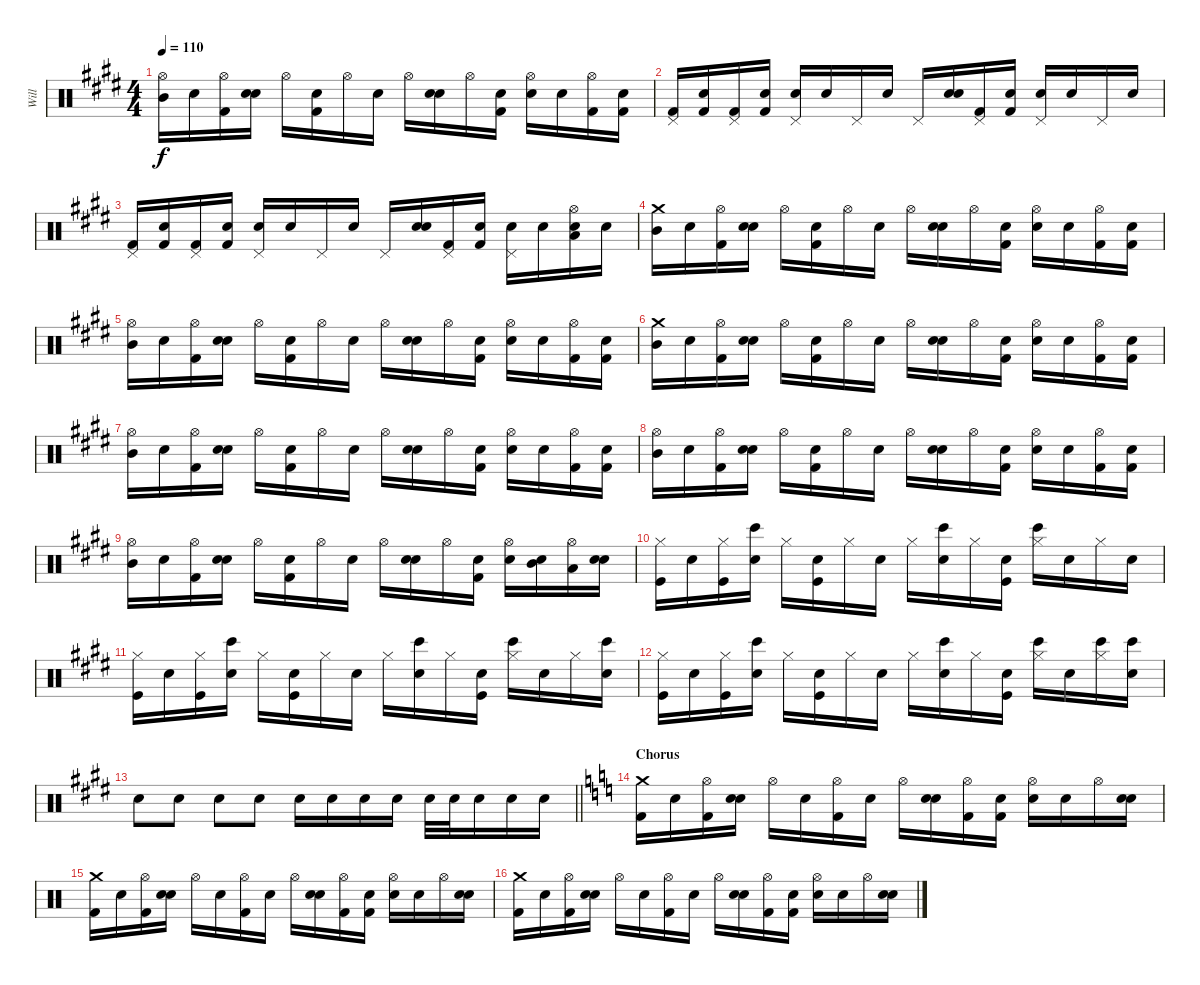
\track ("Will" "Will") {instrument percussion}
\staff {score}
\articulation defaults
\ts (4 4)
\tempo 110
\clef neutral
\ks e
("Hi-Hat (open)" "Mid Tom (hit)").16{dy f} "Snare (hit)".16 ("Hi-Hat (open)" "Kick (hit) 2").16 ("Snare (hit)" "Electric Snare (hit)").16 "Hi-Hat (open)".16 ("Snare (hit)" "Kick (hit) 2").16 "Hi-Hat (open)".16 "Snare (hit)".16 "Hi-Hat (open)".16 ("Snare (hit)" "Electric Snare (hit)").16 "Hi-Hat (open)".16 ("Snare (hit)" "Kick (hit) 2").16 ("Hi-Hat (open)" "Electric Snare (hit)").16 "Snare (hit)".16 ("Hi-Hat (open)" "Kick (hit) 2").16 ("Snare (hit)" "Kick (hit) 2").16 |
("Pedal Hi-Hat (hit)" "Kick (hit) 2").16{volume 10} ("Snare (hit)" "Kick (hit) 2").16 ("Pedal Hi-Hat (hit)" "Kick (hit) 2").16 ("Snare (hit)" "Kick (hit) 2").16 ("Pedal Hi-Hat (hit)" "Electric Snare (hit)").16 "Snare (hit)".16 "Pedal Hi-Hat (hit)".16 "Snare (hit)".16 "Pedal Hi-Hat (hit)".16 ("Snare (hit)" "Electric Snare (hit)").16 ("Pedal Hi-Hat (hit)" "Kick (hit) 2").16 ("Snare (hit)" "Kick (hit) 2").16 ("Pedal Hi-Hat (hit)" "Electric Snare (hit)").16 "Snare (hit)".16 "Pedal Hi-Hat (hit)".16 "Snare (hit)".16 |
("Pedal Hi-Hat (hit)" "Kick (hit) 2").16 ("Snare (hit)" "Kick (hit) 2").16 ("Pedal Hi-Hat (hit)" "Kick (hit) 2").16 ("Snare (hit)" "Kick (hit) 2").16 ("Pedal Hi-Hat (hit)" "Electric Snare (hit)").16 "Snare (hit)".16 "Pedal Hi-Hat (hit)".16 "Snare (hit)".16 "Pedal Hi-Hat (hit)".16 ("Snare (hit)" "Electric Snare (hit)").16 ("Pedal Hi-Hat (hit)" "Kick (hit) 2").16 ("Snare (hit)" "Kick (hit) 2").16 ("Pedal Hi-Hat (hit)" "Electric Snare (hit)").16 "Snare (hit)".16 ("Hi-Hat (open)" "Electric Snare (hit)" "Low Tom (hit)").16 "Snare (hit)".16 |
("Crash medium (hit)" "Mid Tom (hit)").16{volume 13} "Snare (hit)".16 ("Hi-Hat (open)" "Kick (hit) 2").16 ("Snare (hit)" "Electric Snare (hit)").16 "Hi-Hat (open)".16 ("Snare (hit)" "Kick (hit) 2").16 "Hi-Hat (open)".16 "Snare (hit)".16 "Hi-Hat (open)".16 ("Snare (hit)" "Electric Snare (hit)").16 "Hi-Hat (open)".16 ("Snare (hit)" "Kick (hit) 2").16 ("Hi-Hat (open)" "Electric Snare (hit)").16 "Snare (hit)".16 ("Hi-Hat (open)" "Kick (hit) 2").16 ("Snare (hit)" "Kick (hit) 2").16 |
("Hi-Hat (open)" "Mid Tom (hit)").16 "Snare (hit)".16 ("Hi-Hat (open)" "Kick (hit) 2").16 ("Snare (hit)" "Electric Snare (hit)").16 "Hi-Hat (open)".16 ("Snare (hit)" "Kick (hit) 2").16 "Hi-Hat (open)".16 "Snare (hit)".16 "Hi-Hat (open)".16 ("Snare (hit)" "Electric Snare (hit)").16 "Hi-Hat (open)".16 ("Snare (hit)" "Kick (hit) 2").16 ("Hi-Hat (open)" "Electric Snare (hit)").16 "Snare (hit)".16 ("Hi-Hat (open)" "Kick (hit) 2").16 ("Snare (hit)" "Kick (hit) 2").16 |
("Crash medium (hit)" "Mid Tom (hit)").16{volume 13} "Snare (hit)".16 ("Hi-Hat (open)" "Kick (hit) 2").16 ("Snare (hit)" "Electric Snare (hit)").16 "Hi-Hat (open)".16 ("Snare (hit)" "Kick (hit) 2").16 "Hi-Hat (open)".16 "Snare (hit)".16 "Hi-Hat (open)".16 ("Snare (hit)" "Electric Snare (hit)").16 "Hi-Hat (open)".16 ("Snare (hit)" "Kick (hit) 2").16 ("Hi-Hat (open)" "Electric Snare (hit)").16 "Snare (hit)".16 ("Hi-Hat (open)" "Kick (hit) 2").16 ("Snare (hit)" "Kick (hit) 2").16 |
("Hi-Hat (open)" "Mid Tom (hit)").16 "Snare (hit)".16 ("Hi-Hat (open)" "Kick (hit) 2").16 ("Snare (hit)" "Electric Snare (hit)").16 "Hi-Hat (open)".16 ("Snare (hit)" "Kick (hit) 2").16 "Hi-Hat (open)".16 "Snare (hit)".16 "Hi-Hat (open)".16 ("Snare (hit)" "Electric Snare (hit)").16 "Hi-Hat (open)".16 ("Snare (hit)" "Kick (hit) 2").16 ("Hi-Hat (open)" "Electric Snare (hit)").16 "Snare (hit)".16 ("Hi-Hat (open)" "Kick (hit) 2").16 ("Snare (hit)" "Kick (hit) 2").16 |
("Hi-Hat (open)" "Mid Tom (hit)").16 "Snare (hit)".16 ("Hi-Hat (open)" "Kick (hit) 2").16 ("Snare (hit)" "Electric Snare (hit)").16 "Hi-Hat (open)".16 ("Snare (hit)" "Kick (hit) 2").16 "Hi-Hat (open)".16 "Snare (hit)".16 "Hi-Hat (open)".16 ("Snare (hit)" "Electric Snare (hit)").16 "Hi-Hat (open)".16 ("Snare (hit)" "Kick (hit) 2").16 ("Hi-Hat (open)" "Electric Snare (hit)").16 "Snare (hit)".16 ("Hi-Hat (open)" "Kick (hit) 2").16 ("Snare (hit)" "Kick (hit) 2").16 |
("Hi-Hat (open)" "Mid Tom (hit)").16 "Snare (hit)".16 ("Hi-Hat (open)" "Kick (hit) 2").16 ("Snare (hit)" "Electric Snare (hit)").16 "Hi-Hat (open)".16 ("Snare (hit)" "Kick (hit) 2").16 "Hi-Hat (open)".16 "Snare (hit)".16 "Hi-Hat (open)".16 ("Snare (hit)" "Electric Snare (hit)").16 "Hi-Hat (open)".16 ("Snare (hit)" "Kick (hit) 2").16 ("Hi-Hat (open)" "Electric Snare (hit)").16 ("Snare (hit)" "Mid Tom (hit)").16 ("Hi-Hat (open)" "Low Tom (hit)").16 ("Snare (hit)" "Electric Snare (hit)").16 |
("Hi-Hat (closed)" "Kick (hit)").16 "Snare (hit)".16 ("Hi-Hat (closed)" "Kick (hit)").16 ("Snare (hit)" "Bongo High (hit)").16 "Hi-Hat (closed)".16 ("Snare (hit)" "Kick (hit)").16 "Hi-Hat (closed)".16 "Snare (hit)".16 "Hi-Hat (closed)".16 ("Snare (hit)" "Bongo High (hit)").16 "Hi-Hat (closed)".16 ("Snare (hit)" "Kick (hit)").16 ("Hi-Hat (closed)" "Bongo High (hit)").16 "Snare (hit)".16 "Hi-Hat (closed)".16 "Snare (hit)".16 |
("Hi-Hat (closed)" "Kick (hit)").16 "Snare (hit)".16 ("Hi-Hat (closed)" "Kick (hit)").16 ("Snare (hit)" "Bongo High (hit)").16 "Hi-Hat (closed)".16 ("Snare (hit)" "Kick (hit)").16 "Hi-Hat (closed)".16 "Snare (hit)".16 "Hi-Hat (closed)".16 ("Snare (hit)" "Bongo High (hit)").16 "Hi-Hat (closed)".16 ("Snare (hit)" "Kick (hit)").16 ("Hi-Hat (closed)" "Bongo High (hit)").16 "Snare (hit)".16 "Hi-Hat (closed)".16 ("Snare (hit)" "Bongo High (hit)").16 |
("Hi-Hat (closed)" "Kick (hit)").16 "Snare (hit)".16 ("Hi-Hat (closed)" "Kick (hit)").16 ("Snare (hit)" "Bongo High (hit)").16 "Hi-Hat (closed)".16 ("Snare (hit)" "Kick (hit)").16 "Hi-Hat (closed)".16 "Snare (hit)".16 "Hi-Hat (closed)".16 ("Snare (hit)" "Bongo High (hit)").16 "Hi-Hat (closed)".16 ("Snare (hit)" "Kick (hit)").16 ("Hi-Hat (closed)" "Bongo High (hit)").16 "Snare (hit)".16 ("Hi-Hat (closed)" "Bongo High (hit)").16 ("Snare (hit)" "Bongo High (hit)").16 |
\barLineRight lightlight "Electric Snare (hit)".8 "Electric Snare (hit)".8 "Electric Snare (hit)".8 "Electric Snare (hit)".8 "Electric Snare (hit)".16 "Electric Snare (hit)".16 "Electric Snare (hit)".16 "Electric Snare (hit)".16 "Electric Snare (hit)".32 "Electric Snare (hit)".32 "Electric Snare (hit)".16 "Electric Snare (hit)".16 "Electric Snare (hit)".16
|
\section ("" "Chorus")
\ks c
("Crash medium (hit)" "Kick (hit) 2").16 "Snare (hit)".16 ("Hi-Hat (open)" "Kick (hit) 2").16 ("Snare (hit)" "Electric Snare (hit)").16 "Hi-Hat (open)".16 "Snare (hit)".16 ("Hi-Hat (open)" "Kick (hit) 2").16 "Snare (hit)".16 "Hi-Hat (open)".16 ("Snare (hit)" "Electric Snare (hit)").16 ("Hi-Hat (open)" "Kick (hit) 2").16 ("Snare (hit)" "Kick (hit) 2").16 ("Hi-Hat (open)" "Electric Snare (hit)").16 "Snare (hit)".16 "Hi-Hat (open)".16 ("Snare (hit)" "Electric Snare (hit)").16 |
("Crash medium (hit)" "Kick (hit) 2").16 "Snare (hit)".16 ("Hi-Hat (open)" "Kick (hit) 2").16 ("Snare (hit)" "Electric Snare (hit)").16 "Hi-Hat (open)".16 "Snare (hit)".16 ("Hi-Hat (open)" "Kick (hit) 2").16 "Snare (hit)".16 "Hi-Hat (open)".16 ("Snare (hit)" "Electric Snare (hit)").16 ("Hi-Hat (open)" "Kick (hit) 2").16 ("Snare (hit)" "Kick (hit) 2").16 ("Hi-Hat (open)" "Electric Snare (hit)").16 "Snare (hit)".16 "Hi-Hat (open)".16 ("Snare (hit)" "Electric Snare (hit)").16 |
("Crash medium (hit)" "Kick (hit) 2").16 "Snare (hit)".16 ("Hi-Hat (open)" "Kick (hit) 2").16 ("Snare (hit)" "Electric Snare (hit)").16 "Hi-Hat (open)".16 "Snare (hit)".16 ("Hi-Hat (open)" "Kick (hit) 2").16 "Snare (hit)".16 "Hi-Hat (open)".16 ("Snare (hit)" "Electric Snare (hit)").16 ("Hi-Hat (open)" "Kick (hit) 2").16 ("Snare (hit)" "Kick (hit) 2").16 ("Hi-Hat (open)" "Electric Snare (hit)").16 "Snare (hit)".16 "Hi-Hat (open)".16 ("Snare (hit)" "Electric Snare (hit)").16
